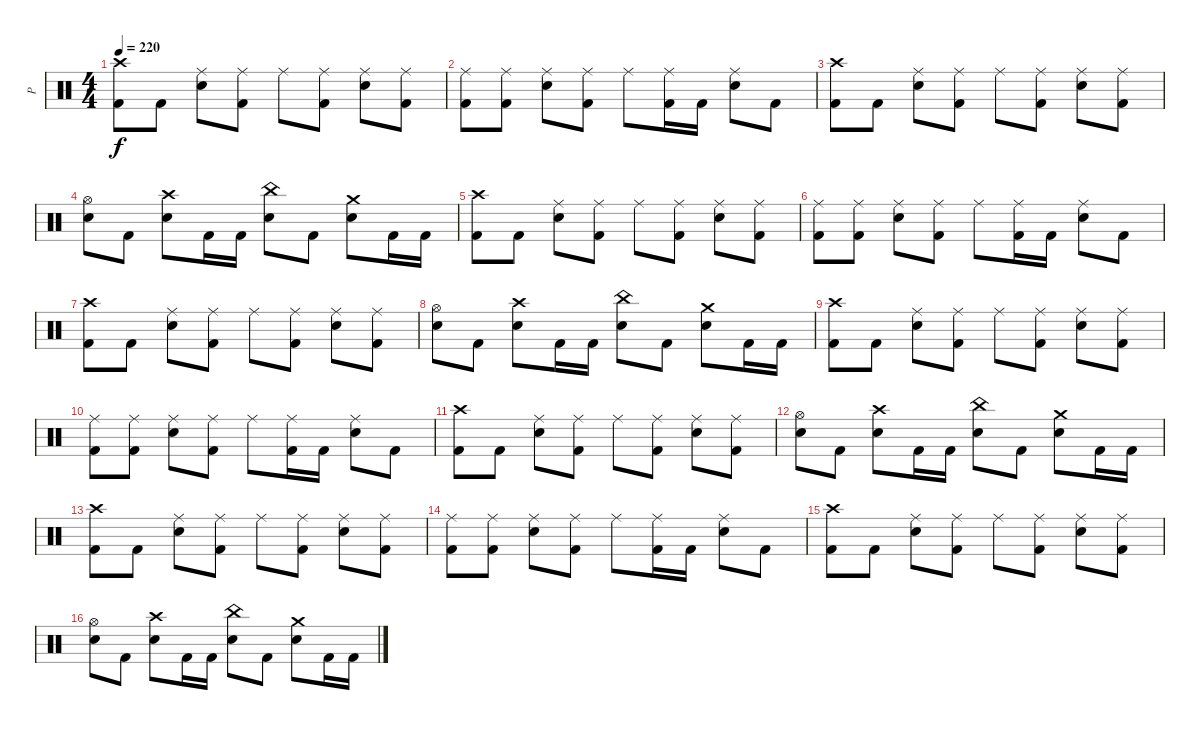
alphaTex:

\track ("P" "P") {instrument percussion}
\staff {score}
\articulation defaults
\ts (4 4)
\tempo 220
\clef neutral
\ks c
("Crash high (hit)" "Kick (hit) 2").8{dy f} "Kick (hit) 2".8 ("Ride (middle)" "Electric Snare (hit)").8 ("Ride (middle)" "Kick (hit) 2").8 "Ride (middle)".8 ("Ride (middle)" "Kick (hit) 2").8 ("Ride (middle)" "Electric Snare (hit)").8 ("Ride (middle)" "Kick (hit) 2").8 |
("Ride (middle)" "Kick (hit) 2").8 ("Ride (middle)" "Kick (hit) 2").8 ("Ride (middle)" "Electric Snare (hit)").8 ("Ride (middle)" "Kick (hit) 2").8 "Ride (middle)".8 ("Ride (middle)" "Kick (hit) 2").16 "Kick (hit) 2".16 ("Ride (middle)" "Electric Snare (hit)").8 "Kick (hit) 2".8 |
("Crash high (hit)" "Kick (hit) 2").8 "Kick (hit) 2".8 ("Ride (middle)" "Electric Snare (hit)").8 ("Ride (middle)" "Kick (hit) 2").8 "Ride (middle)".8 ("Ride (middle)" "Kick (hit) 2").8 ("Ride (middle)" "Electric Snare (hit)").8 ("Ride (middle)" "Kick (hit) 2").8 |
("Hi-Hat (open)" "Electric Snare (hit)").8 "Kick (hit) 2".8 ("Crash high (hit)" "Electric Snare (hit)").8 "Kick (hit) 2".16 "Kick (hit) 2".16 ("China (hit)" "Electric Snare (hit)").8 "Kick (hit) 2".8 ("Crash medium (hit)" "Electric Snare (hit)").8 "Kick (hit) 2".16 "Kick (hit) 2".16 |
("Crash high (hit)" "Kick (hit) 2").8 "Kick (hit) 2".8 ("Ride (middle)" "Electric Snare (hit)").8 ("Ride (middle)" "Kick (hit) 2").8 "Ride (middle)".8 ("Ride (middle)" "Kick (hit) 2").8 ("Ride (middle)" "Electric Snare (hit)").8 ("Ride (middle)" "Kick (hit) 2").8 |
("Ride (middle)" "Kick (hit) 2").8 ("Ride (middle)" "Kick (hit) 2").8 ("Ride (middle)" "Electric Snare (hit)").8 ("Ride (middle)" "Kick (hit) 2").8 "Ride (middle)".8 ("Ride (middle)" "Kick (hit) 2").16 "Kick (hit) 2".16 ("Ride (middle)" "Electric Snare (hit)").8 "Kick (hit) 2".8 |
("Crash high (hit)" "Kick (hit) 2").8 "Kick (hit) 2".8 ("Ride (middle)" "Electric Snare (hit)").8 ("Ride (middle)" "Kick (hit) 2").8 "Ride (middle)".8 ("Ride (middle)" "Kick (hit) 2").8 ("Ride (middle)" "Electric Snare (hit)").8 ("Ride (middle)" "Kick (hit) 2").8 |
("Hi-Hat (open)" "Electric Snare (hit)").8 "Kick (hit) 2".8 ("Crash high (hit)" "Electric Snare (hit)").8 "Kick (hit) 2".16 "Kick (hit) 2".16 ("China (hit)" "Electric Snare (hit)").8 "Kick (hit) 2".8 ("Crash medium (hit)" "Electric Snare (hit)").8 "Kick (hit) 2".16 "Kick (hit) 2".16 |
("Crash high (hit)" "Kick (hit) 2").8 "Kick (hit) 2".8 ("Ride (middle)" "Electric Snare (hit)").8 ("Ride (middle)" "Kick (hit) 2").8 "Ride (middle)".8 ("Ride (middle)" "Kick (hit) 2").8 ("Ride (middle)" "Electric Snare (hit)").8 ("Ride (middle)" "Kick (hit) 2").8 |
("Ride (middle)" "Kick (hit) 2").8 ("Ride (middle)" "Kick (hit) 2").8 ("Ride (middle)" "Electric Snare (hit)").8 ("Ride (middle)" "Kick (hit) 2").8 "Ride (middle)".8 ("Ride (middle)" "Kick (hit) 2").16 "Kick (hit) 2".16 ("Ride (middle)" "Electric Snare (hit)").8 "Kick (hit) 2".8 |
("Crash high (hit)" "Kick (hit) 2").8 "Kick (hit) 2".8 ("Ride (middle)" "Electric Snare (hit)").8 ("Ride (middle)" "Kick (hit) 2").8 "Ride (middle)".8 ("Ride (middle)" "Kick (hit) 2").8 ("Ride (middle)" "Electric Snare (hit)").8 ("Ride (middle)" "Kick (hit) 2").8 |
("Hi-Hat (open)" "Electric Snare (hit)").8 "Kick (hit) 2".8 ("Crash high (hit)" "Electric Snare (hit)").8 "Kick (hit) 2".16 "Kick (hit) 2".16 ("China (hit)" "Electric Snare (hit)").8 "Kick (hit) 2".8 ("Crash medium (hit)" "Electric Snare (hit)").8 "Kick (hit) 2".16 "Kick (hit) 2".16 |
("Crash high (hit)" "Kick (hit) 2").8 "Kick (hit) 2".8 ("Ride (middle)" "Electric Snare (hit)").8 ("Ride (middle)" "Kick (hit) 2").8 "Ride (middle)".8 ("Ride (middle)" "Kick (hit) 2").8 ("Ride (middle)" "Electric Snare (hit)").8 ("Ride (middle)" "Kick (hit) 2").8 |
("Ride (middle)" "Kick (hit) 2").8 ("Ride (middle)" "Kick (hit) 2").8 ("Ride (middle)" "Electric Snare (hit)").8 ("Ride (middle)" "Kick (hit) 2").8 "Ride (middle)".8 ("Ride (middle)" "Kick (hit) 2").16 "Kick (hit) 2".16 ("Ride (middle)" "Electric Snare (hit)").8 "Kick (hit) 2".8 |
("Crash high (hit)" "Kick (hit) 2").8 "Kick (hit) 2".8 ("Ride (middle)" "Electric Snare (hit)").8 ("Ride (middle)" "Kick (hit) 2").8 "Ride (middle)".8 ("Ride (middle)" "Kick (hit) 2").8 ("Ride (middle)" "Electric Snare (hit)").8 ("Ride (middle)" "Kick (hit) 2").8 |
("Hi-Hat (open)" "Electric Snare (hit)").8 "Kick (hit) 2".8 ("Crash high (hit)" "Electric Snare (hit)").8 "Kick (hit) 2".16 "Kick (hit) 2".16 ("China (hit)" "Electric Snare (hit)").8 "Kick (hit) 2".8 ("Crash medium (hit)" "Electric Snare (hit)").8 "Kick (hit) 2".16 "Kick (hit) 2".16
